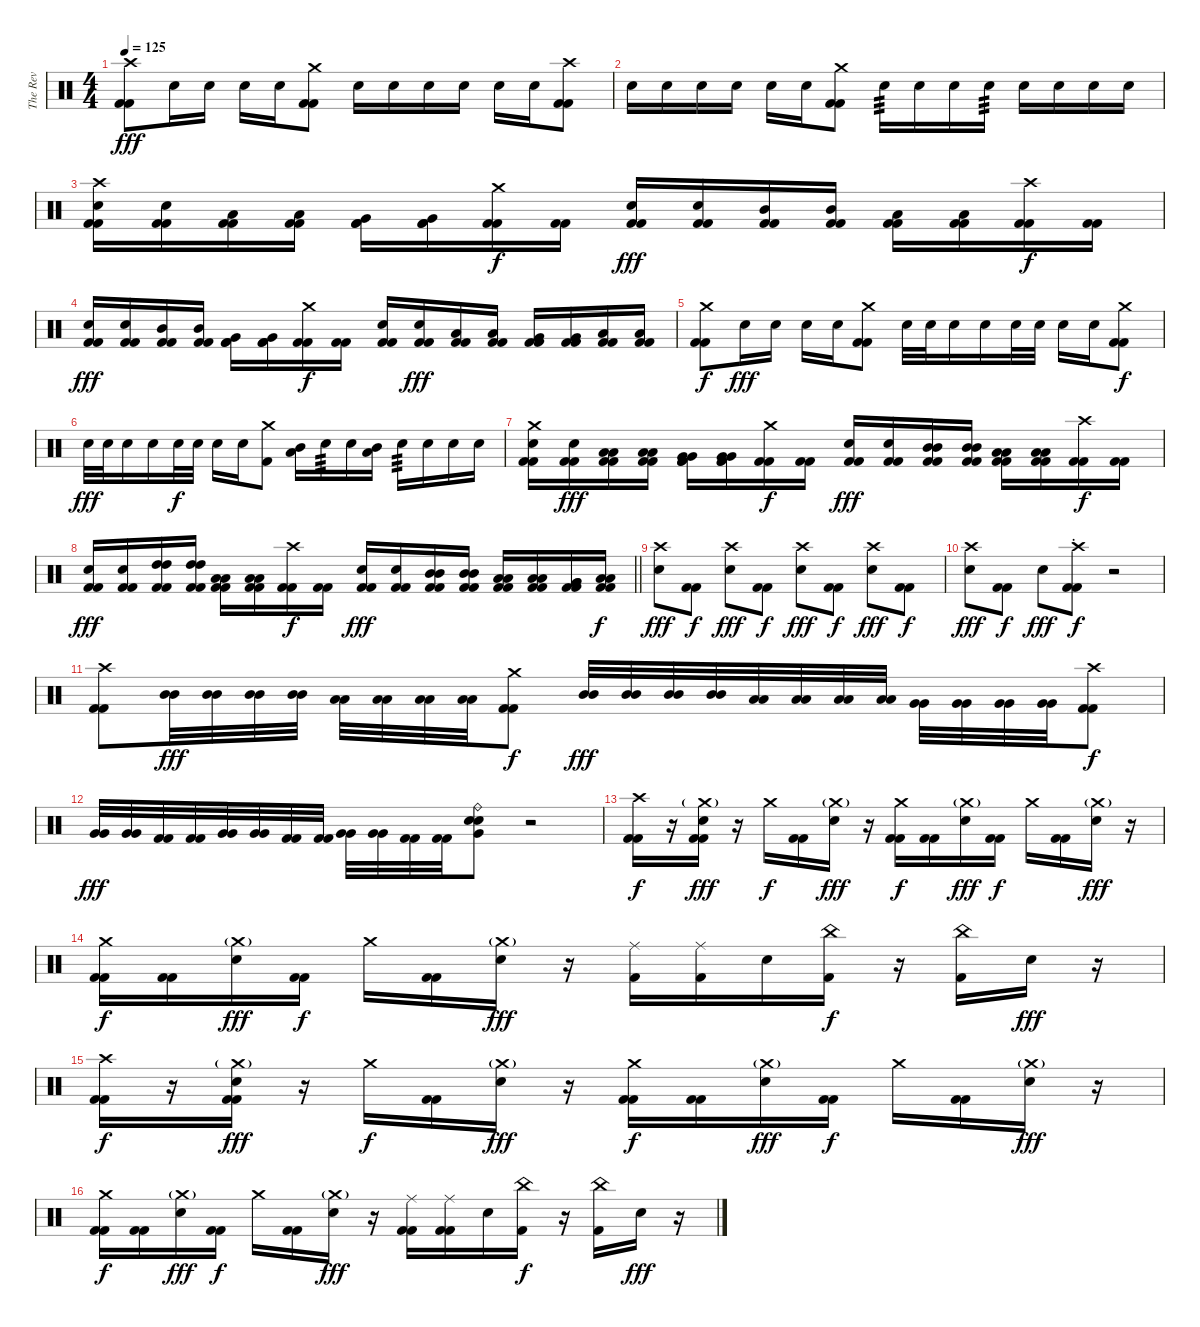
\track ("The Rev" "The Rev") {instrument percussion}
\staff {score}
\articulation defaults
\ts (4 4)
\tempo 125
\clef neutral
\ks c
("Crash high (hit)" "Kick (hit) 2" "Kick (hit) 2").8{dy fff} "Electric Snare (hit)".16 "Electric Snare (hit)".16 "Electric Snare (hit)".16 "Electric Snare (hit)".16 ("Crash medium (hit)" "Kick (hit) 2" "Kick (hit) 2").8 "Electric Snare (hit)".16 "Electric Snare (hit)".16 "Electric Snare (hit)".16 "Electric Snare (hit)".16 "Electric Snare (hit)".16 "Electric Snare (hit)".16 ("Crash high (hit)" "Kick (hit) 2" "Kick (hit) 2").8 |
"Electric Snare (hit)".16 "Electric Snare (hit)".16 "Electric Snare (hit)".16 "Electric Snare (hit)".16 "Electric Snare (hit)".16 "Electric Snare (hit)".16 ("Crash medium (hit)" "Kick (hit) 2" "Kick (hit) 2").8 "Electric Snare (hit)".16{tp 3} "Electric Snare (hit)".16 "Electric Snare (hit)".16 "Electric Snare (hit)".16{tp 3} "Electric Snare (hit)".16 "Electric Snare (hit)".16 "Electric Snare (hit)".16 "Electric Snare (hit)".16 |
("Crash high (hit)" "Electric Snare (hit)" "Kick (hit) 2" "Kick (hit) 2").16 ("Electric Snare (hit)" "Kick (hit) 2" "Kick (hit) 2").16 ("Low Tom (hit)" "Kick (hit) 2" "Kick (hit) 2").16 ("Low Tom (hit)" "Kick (hit) 2" "Kick (hit) 2").16 ("Very Low Tom (hit)" "Kick (hit) 2" "Kick (hit) 2").16 ("Very Low Tom (hit)" "Kick (hit) 2" "Kick (hit) 2").16 ("Crash medium (hit)" "Kick (hit) 2" "Kick (hit) 2").16{dy f} ("Kick (hit) 2" "Kick (hit) 2").16 ("Electric Snare (hit)" "Kick (hit) 2" "Kick (hit) 2").16{dy fff} ("Electric Snare (hit)" "Kick (hit) 2" "Kick (hit) 2").16 ("Mid Tom (hit)" "Kick (hit) 2" "Kick (hit) 2").16 ("Mid Tom (hit)" "Kick (hit) 2" "Kick (hit) 2").16 ("Low Tom (hit)" "Kick (hit) 2" "Kick (hit) 2").16 ("Low Tom (hit)" "Kick (hit) 2" "Kick (hit) 2").16 ("Crash high (hit)" "Kick (hit) 2" "Kick (hit) 2").16{dy f} ("Kick (hit) 2" "Kick (hit) 2").16 |
("Electric Snare (hit)" "Kick (hit) 2" "Kick (hit) 2").16{dy fff} ("Electric Snare (hit)" "Kick (hit) 2" "Kick (hit) 2").16 ("Mid Tom (hit)" "Kick (hit) 2" "Kick (hit) 2").16 ("Mid Tom (hit)" "Kick (hit) 2" "Kick (hit) 2").16 ("Very Low Tom (hit)" "Kick (hit) 2" "Kick (hit) 2").16 ("Very Low Tom (hit)" "Kick (hit) 2" "Kick (hit) 2").16 ("Crash medium (hit)" "Kick (hit) 2" "Kick (hit) 2").16{dy f} ("Kick (hit) 2" "Kick (hit) 2").16 ("Electric Snare (hit)" "Kick (hit) 2" "Kick (hit) 2").16 ("Electric Snare (hit)" "Kick (hit) 2" "Kick (hit) 2").16{dy fff} ("Low Tom (hit)" "Kick (hit) 2" "Kick (hit) 2").16 ("Low Tom (hit)" "Kick (hit) 2" "Kick (hit) 2").16 ("Very Low Tom (hit)" "Kick (hit) 2" "Kick (hit) 2").16 ("Very Low Tom (hit)" "Kick (hit) 2" "Kick (hit) 2").16 ("Low Floor Tom (hit)" "Kick (hit) 2" "Kick (hit) 2").16 ("Low Floor Tom (hit)" "Kick (hit) 2" "Kick (hit) 2").16 |
("Crash medium (hit)" "Kick (hit) 2" "Kick (hit) 2").8{dy f} "Electric Snare (hit)".16{dy fff} "Electric Snare (hit)".16 "Electric Snare (hit)".16 "Electric Snare (hit)".16 ("Crash medium (hit)" "Kick (hit) 2" "Kick (hit) 2").8 "Electric Snare (hit)".32 "Electric Snare (hit)".32 "Electric Snare (hit)".16 "Electric Snare (hit)".16 "Electric Snare (hit)".32 "Electric Snare (hit)".32 "Electric Snare (hit)".16 "Electric Snare (hit)".16 ("Crash medium (hit)" "Kick (hit) 2" "Kick (hit) 2").8{dy f} |
"Electric Snare (hit)".32{dy fff} "Electric Snare (hit)".32 "Electric Snare (hit)".16 "Electric Snare (hit)".16 "Electric Snare (hit)".32{dy f} "Electric Snare (hit)".32 "Electric Snare (hit)".16 "Electric Snare (hit)".16 ("Crash medium (hit)" "Kick (hit) 2").8 ("Mid Tom (hit)" "Low Tom (hit)").16 "Electric Snare (hit)".16{tp 3} "Electric Snare (hit)".16 ("Mid Tom (hit)" "Low Tom (hit)").16 "Electric Snare (hit)".16{tp 3} "Electric Snare (hit)".16 "Electric Snare (hit)".16 "Electric Snare (hit)".16 |
("Crash medium (hit)" "Electric Snare (hit)" "Kick (hit) 2" "Kick (hit) 2").16 ("Electric Snare (hit)" "Kick (hit) 2" "Kick (hit) 2").16{dy fff} ("Low Tom (hit)" "Low Tom (hit)" "Kick (hit) 2" "Kick (hit) 2").16 ("Low Tom (hit)" "Low Tom (hit)" "Kick (hit) 2" "Kick (hit) 2").16 ("Very Low Tom (hit)" "Very Low Tom (hit)" "Kick (hit) 2" "Kick (hit) 2").16 ("Very Low Tom (hit)" "Very Low Tom (hit)" "Kick (hit) 2" "Kick (hit) 2").16 ("Crash medium (hit)" "Kick (hit) 2" "Kick (hit) 2").16{dy f} ("Kick (hit) 2" "Kick (hit) 2").16 ("Electric Snare (hit)" "Kick (hit) 2" "Kick (hit) 2").16{dy fff} ("Electric Snare (hit)" "Kick (hit) 2" "Kick (hit) 2").16 ("Mid Tom (hit)" "Mid Tom (hit)" "Kick (hit) 2" "Kick (hit) 2").16 ("Mid Tom (hit)" "Mid Tom (hit)" "Kick (hit) 2" "Kick (hit) 2").16 ("Low Tom (hit)" "Low Tom (hit)" "Kick (hit) 2" "Kick (hit) 2").16 ("Low Tom (hit)" "Low Tom (hit)" "Kick (hit) 2" "Kick (hit) 2").16 ("Crash high (hit)" "Kick (hit) 2" "Kick (hit) 2").16{dy f} ("Kick (hit) 2" "Kick (hit) 2").16 |
\barLineRight lightlight
("Electric Snare (hit)" "Kick (hit) 2" "Kick (hit) 2").16{dy fff} ("Electric Snare (hit)" "Kick (hit) 2" "Kick (hit) 2").16 ("High Tom (hit)" "High Tom (hit)" "Kick (hit) 2" "Kick (hit) 2").16 ("High Tom (hit)" "High Tom (hit)" "Kick (hit) 2" "Kick (hit) 2").16 ("Low Tom (hit)" "Low Tom (hit)" "Kick (hit) 2" "Kick (hit) 2").16 ("Low Tom (hit)" "Low Tom (hit)" "Kick (hit) 2" "Kick (hit) 2").16 ("Crash high (hit)" "Kick (hit) 2" "Kick (hit) 2").16{dy f} ("Kick (hit) 2" "Kick (hit) 2").16 ("Electric Snare (hit)" "Kick (hit) 2" "Kick (hit) 2").16{dy fff} ("Electric Snare (hit)" "Kick (hit) 2" "Kick (hit) 2").16 ("Mid Tom (hit)" "Mid Tom (hit)" "Kick (hit) 2" "Kick (hit) 2").16 ("Mid Tom (hit)" "Mid Tom (hit)" "Kick (hit) 2" "Kick (hit) 2").16 ("Low Tom (hit)" "Low Tom (hit)" "Kick (hit) 2" "Kick (hit) 2").16 ("Low Tom (hit)" "Low Tom (hit)" "Kick (hit) 2" "Kick (hit) 2").16 ("Very Low Tom (hit)" "Very Low Tom (hit)" "Kick (hit) 2" "Kick (hit) 2").16 ("Low Floor Tom (hit)" "Low Floor Tom (hit)" "Kick (hit) 2" "Kick (hit) 2").16{dy f} |
("Crash high (hit)" "Electric Snare (hit)").8{dy fff} ("Kick (hit) 2" "Kick (hit) 2").8{dy f} ("Crash high (hit)" "Electric Snare (hit)").8{dy fff} ("Kick (hit) 2" "Kick (hit) 2").8{dy f} ("Crash high (hit)" "Electric Snare (hit)").8{dy fff} ("Kick (hit) 2" "Kick (hit) 2").8{dy f} ("Crash high (hit)" "Electric Snare (hit)").8{dy fff} ("Kick (hit) 2" "Kick (hit) 2").8{dy f} |
("Crash high (hit)" "Electric Snare (hit)").8{dy fff} ("Kick (hit) 2" "Kick (hit) 2").8{dy f} "Electric Snare (hit)".8{dy fff} ("Crash high (hit)"{st} "Kick (hit) 2" "Kick (hit) 2").8{dy f} r.2 |
("Crash high (hit)" "Kick (hit) 2" "Kick (hit) 2").8 ("Mid Tom (hit)" "Mid Tom (hit)").32{dy fff} ("Mid Tom (hit)" "Mid Tom (hit)").32 ("Mid Tom (hit)" "Mid Tom (hit)").32 ("Mid Tom (hit)" "Mid Tom (hit)").32 ("Low Tom (hit)" "Low Tom (hit)").32 ("Low Tom (hit)" "Low Tom (hit)").32 ("Low Tom (hit)" "Low Tom (hit)").32 ("Low Tom (hit)" "Low Tom (hit)").32 ("Crash medium (hit)" "Kick (hit) 2" "Kick (hit) 2").8{dy f} ("Mid Tom (hit)" "Mid Tom (hit)").32{dy fff} ("Mid Tom (hit)" "Mid Tom (hit)").32 ("Mid Tom (hit)" "Mid Tom (hit)").32 ("Mid Tom (hit)" "Mid Tom (hit)").32 ("Low Tom (hit)" "Low Tom (hit)").32 ("Low Tom (hit)" "Low Tom (hit)").32 ("Low Tom (hit)" "Low Tom (hit)").32 ("Low Tom (hit)" "Low Tom (hit)").32 ("Very Low Tom (hit)" "Very Low Tom (hit)").32 ("Very Low Tom (hit)" "Very Low Tom (hit)").32 ("Very Low Tom (hit)" "Very Low Tom (hit)").32 ("Very Low Tom (hit)" "Very Low Tom (hit)").32 ("Crash high (hit)" "Kick (hit) 2" "Kick (hit) 2").8{dy f} |
("Very Low Tom (hit)" "Very Low Tom (hit)").32{dy fff} ("Very Low Tom (hit)" "Very Low Tom (hit)").32 ("Kick (hit) 2" "Kick (hit) 2").32 ("Kick (hit) 2" "Kick (hit) 2").32 ("Very Low Tom (hit)" "Very Low Tom (hit)").32 ("Very Low Tom (hit)" "Very Low Tom (hit)").32 ("Kick (hit) 2" "Kick (hit) 2").32 ("Kick (hit) 2" "Kick (hit) 2").32 ("Very Low Tom (hit)" "Very Low Tom (hit)").32 ("Very Low Tom (hit)" "Very Low Tom (hit)").32 ("Kick (hit) 2" "Kick (hit) 2").32 ("Kick (hit) 2" "Kick (hit) 2").32 ("Ride (bell)" "Electric Snare (hit)" "Electric Snare (hit)" "Very Low Tom (hit)").8 r.2 |
("Crash high (hit)" "Kick (hit) 2" "Kick (hit) 2").16{dy f} r.16 ("Crash medium (hit)"{g} "Electric Snare (hit)" "Kick (hit) 2" "Kick (hit) 2").16{dy fff} r.16 "Crash medium (hit)".16{dy f} ("Kick (hit) 2" "Kick (hit) 2").16 ("Crash medium (hit)"{g} "Electric Snare (hit)").16{dy fff} r.16 ("Crash medium (hit)" "Kick (hit) 2" "Kick (hit) 2").16{dy f} ("Kick (hit) 2" "Kick (hit) 2").16 ("Crash medium (hit)"{g} "Electric Snare (hit)").16{dy fff} ("Kick (hit) 2" "Kick (hit) 2").16{dy f} "Crash medium (hit)".16 ("Kick (hit) 2" "Kick (hit) 2").16 ("Crash medium (hit)"{g} "Electric Snare (hit)").16{dy fff} r.16 |
("Crash medium (hit)" "Kick (hit) 2" "Kick (hit) 2").16{dy f} ("Kick (hit) 2" "Kick (hit) 2").16 ("Crash medium (hit)"{g} "Electric Snare (hit)").16{dy fff} ("Kick (hit) 2" "Kick (hit) 2").16{dy f} "Crash medium (hit)".16 ("Kick (hit) 2" "Kick (hit) 2").16 ("Crash medium (hit)"{g} "Electric Snare (hit)").16{dy fff} r.16 ("Ride (middle)" "Kick (hit) 2").16 ("Ride (middle)" "Kick (hit) 2").16 "Electric Snare (hit)".16 ("China (hit)" "Kick (hit) 2").16{dy f} r.16 ("China (hit)" "Kick (hit) 2").16 "Electric Snare (hit)".16{dy fff} r.16 |
("Crash high (hit)" "Kick (hit) 2" "Kick (hit) 2").16{dy f} r.16 ("Crash medium (hit)"{g} "Electric Snare (hit)" "Kick (hit) 2" "Kick (hit) 2").16{dy fff} r.16 "Crash medium (hit)".16{dy f} ("Kick (hit) 2" "Kick (hit) 2").16 ("Crash medium (hit)"{g} "Electric Snare (hit)").16{dy fff} r.16 ("Crash medium (hit)" "Kick (hit) 2" "Kick (hit) 2").16{dy f} ("Kick (hit) 2" "Kick (hit) 2").16 ("Crash medium (hit)"{g} "Electric Snare (hit)").16{dy fff} ("Kick (hit) 2" "Kick (hit) 2").16{dy f} "Crash medium (hit)".16 ("Kick (hit) 2" "Kick (hit) 2").16 ("Crash medium (hit)"{g} "Electric Snare (hit)").16{dy fff} r.16 |
("Crash medium (hit)" "Kick (hit) 2" "Kick (hit) 2").16{dy f} ("Kick (hit) 2" "Kick (hit) 2").16 ("Crash medium (hit)"{g} "Electric Snare (hit)").16{dy fff} ("Kick (hit) 2" "Kick (hit) 2").16{dy f} "Crash medium (hit)".16 ("Kick (hit) 2" "Kick (hit) 2").16 ("Crash medium (hit)"{g} "Electric Snare (hit)").16{dy fff} r.16 ("Ride (middle)" "Kick (hit) 2" "Kick (hit) 2").16 ("Ride (middle)" "Kick (hit) 2" "Kick (hit) 2").16 "Electric Snare (hit)".16 ("China (hit)" "Kick (hit) 2").16{dy f} r.16 ("China (hit)" "Kick (hit) 2").16 "Electric Snare (hit)".16{dy fff} r.16
